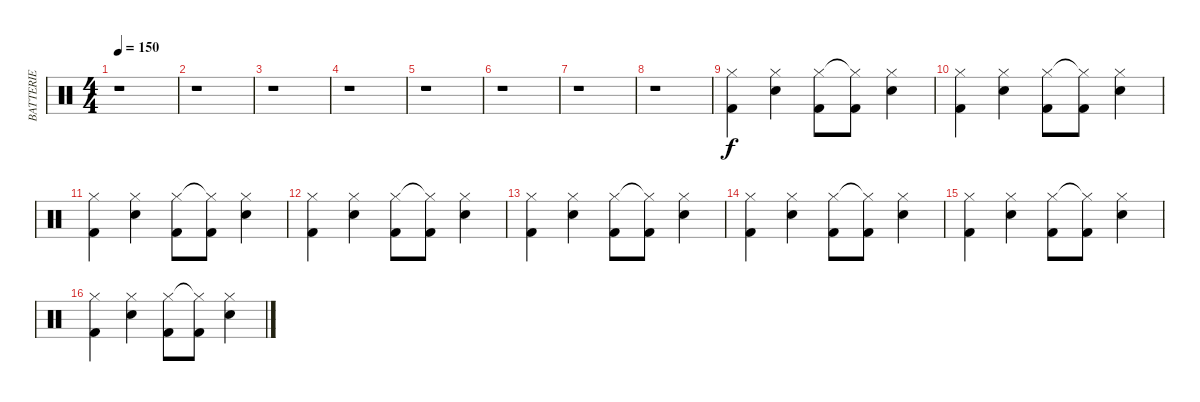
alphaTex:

\track ("BATTERIE" "BATTERIE") {instrument percussion}
\staff {score}
\articulation defaults
\ts (4 4)
\tempo 150
\clef neutral
\ks c
r.1{dy f} |
r.1 |
r.1 |
r.1 |
r.1 |
r.1 |
r.1 |
r.1 |
("Hi-Hat (closed)" "Kick (hit) 2").4 ("Hi-Hat (closed)" "Snare (hit) 2").4 ("Hi-Hat (closed)" "Kick (hit) 2").8 ("Hi-Hat (closed)"{t} "Kick (hit) 2").8 ("Hi-Hat (closed)" "Snare (hit) 2").4 |
("Hi-Hat (closed)" "Kick (hit) 2").4 ("Hi-Hat (closed)" "Snare (hit) 2").4 ("Hi-Hat (closed)" "Kick (hit) 2").8 ("Hi-Hat (closed)"{t} "Kick (hit) 2").8 ("Hi-Hat (closed)" "Snare (hit) 2").4 |
("Hi-Hat (closed)" "Kick (hit) 2").4 ("Hi-Hat (closed)" "Snare (hit) 2").4 ("Hi-Hat (closed)" "Kick (hit) 2").8 ("Hi-Hat (closed)"{t} "Kick (hit) 2").8 ("Hi-Hat (closed)" "Snare (hit) 2").4 |
("Hi-Hat (closed)" "Kick (hit) 2").4 ("Hi-Hat (closed)" "Snare (hit) 2").4 ("Hi-Hat (closed)" "Kick (hit) 2").8 ("Hi-Hat (closed)"{t} "Kick (hit) 2").8 ("Hi-Hat (closed)" "Snare (hit) 2").4 |
("Hi-Hat (closed)" "Kick (hit) 2").4 ("Hi-Hat (closed)" "Snare (hit) 2").4 ("Hi-Hat (closed)" "Kick (hit) 2").8 ("Hi-Hat (closed)"{t} "Kick (hit) 2").8 ("Hi-Hat (closed)" "Snare (hit) 2").4 |
("Hi-Hat (closed)" "Kick (hit) 2").4 ("Hi-Hat (closed)" "Snare (hit) 2").4 ("Hi-Hat (closed)" "Kick (hit) 2").8 ("Hi-Hat (closed)"{t} "Kick (hit) 2").8 ("Hi-Hat (closed)" "Snare (hit) 2").4 |
("Hi-Hat (closed)" "Kick (hit) 2").4 ("Hi-Hat (closed)" "Snare (hit) 2").4 ("Hi-Hat (closed)" "Kick (hit) 2").8 ("Hi-Hat (closed)"{t} "Kick (hit) 2").8 ("Hi-Hat (closed)" "Snare (hit) 2").4 |
("Hi-Hat (closed)" "Kick (hit) 2").4 ("Hi-Hat (closed)" "Snare (hit) 2").4 ("Hi-Hat (closed)" "Kick (hit) 2").8 ("Hi-Hat (closed)"{t} "Kick (hit) 2").8 ("Hi-Hat (closed)" "Snare (hit) 2").4
